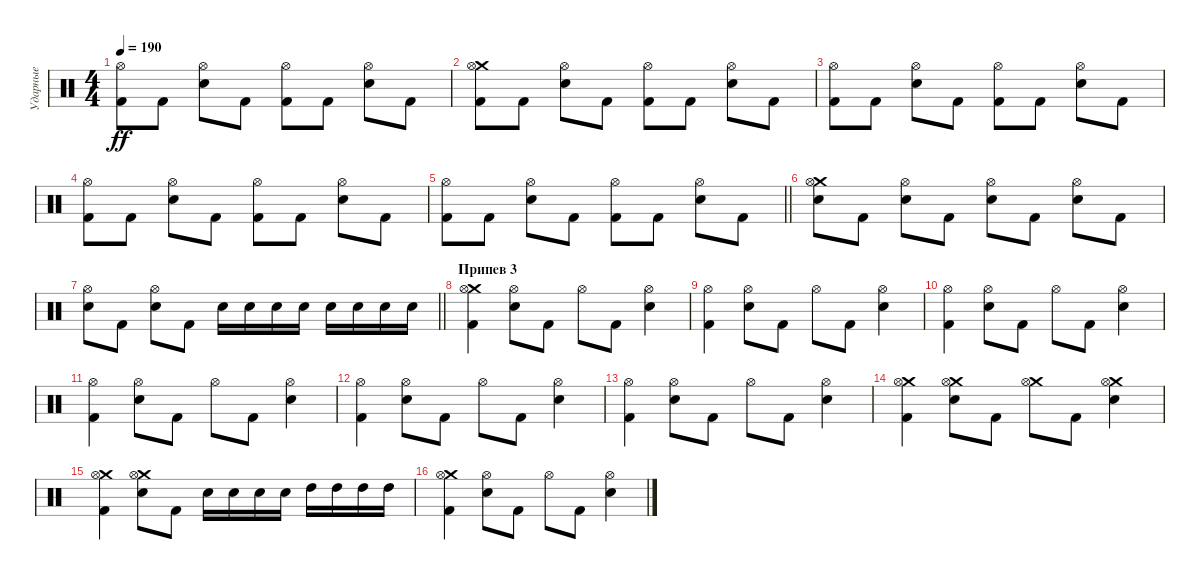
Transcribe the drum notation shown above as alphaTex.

\track ("Ударные" "Ударные") {instrument percussion}
\staff {score}
\articulation defaults
\ts (4 4)
\tempo 190
\clef neutral
\ks c
("Kick (hit) 2" "Hi-Hat (open)").8{dy ff} "Kick (hit) 2".8 ("Electric Snare (hit)" "Hi-Hat (open)").8 "Kick (hit) 2".8 ("Kick (hit) 2" "Hi-Hat (open)").8 "Kick (hit) 2".8 ("Electric Snare (hit)" "Hi-Hat (open)").8 "Kick (hit) 2".8 |
("Crash medium (hit)" "Kick (hit) 2" "Hi-Hat (open)").8 "Kick (hit) 2".8 ("Electric Snare (hit)" "Hi-Hat (open)").8 "Kick (hit) 2".8 ("Kick (hit) 2" "Hi-Hat (open)").8 "Kick (hit) 2".8 ("Electric Snare (hit)" "Hi-Hat (open)").8 "Kick (hit) 2".8 |
("Kick (hit) 2" "Hi-Hat (open)").8 "Kick (hit) 2".8 ("Electric Snare (hit)" "Hi-Hat (open)").8 "Kick (hit) 2".8 ("Kick (hit) 2" "Hi-Hat (open)").8 "Kick (hit) 2".8 ("Electric Snare (hit)" "Hi-Hat (open)").8 "Kick (hit) 2".8 |
("Kick (hit) 2" "Hi-Hat (open)").8 "Kick (hit) 2".8 ("Electric Snare (hit)" "Hi-Hat (open)").8 "Kick (hit) 2".8 ("Kick (hit) 2" "Hi-Hat (open)").8 "Kick (hit) 2".8 ("Electric Snare (hit)" "Hi-Hat (open)").8 "Kick (hit) 2".8 |
\barLineRight lightlight
("Kick (hit) 2" "Hi-Hat (open)").8 "Kick (hit) 2".8 ("Electric Snare (hit)" "Hi-Hat (open)").8 "Kick (hit) 2".8 ("Kick (hit) 2" "Hi-Hat (open)").8 "Kick (hit) 2".8 ("Electric Snare (hit)" "Hi-Hat (open)").8 "Kick (hit) 2".8 |
("Crash medium (hit)" "Electric Snare (hit)" "Hi-Hat (open)").8 "Kick (hit) 2".8 ("Electric Snare (hit)" "Hi-Hat (open)").8 "Kick (hit) 2".8 ("Electric Snare (hit)" "Hi-Hat (open)").8 "Kick (hit) 2".8 ("Electric Snare (hit)" "Hi-Hat (open)").8 "Kick (hit) 2".8 |
\barLineRight lightlight
("Electric Snare (hit)" "Hi-Hat (open)").8 "Kick (hit) 2".8 ("Electric Snare (hit)" "Hi-Hat (open)").8 "Kick (hit) 2".8 "Electric Snare (hit)".16 "Electric Snare (hit)".16 "Electric Snare (hit)".16 "Electric Snare (hit)".16 "Electric Snare (hit)".16 "Electric Snare (hit)".16 "Electric Snare (hit)".16 "Electric Snare (hit)".16 |
\section ("" "Припев 3")
("Crash medium (hit)" "Kick (hit) 2" "Hi-Hat (open)").4 ("Electric Snare (hit)" "Hi-Hat (open)").8 "Kick (hit) 2".8 "Hi-Hat (open)".8 "Kick (hit) 2".8 ("Electric Snare (hit)" "Hi-Hat (open)").4 |
("Kick (hit) 2" "Hi-Hat (open)").4 ("Electric Snare (hit)" "Hi-Hat (open)").8 "Kick (hit) 2".8 "Hi-Hat (open)".8 "Kick (hit) 2".8 ("Electric Snare (hit)" "Hi-Hat (open)").4 |
("Kick (hit) 2" "Hi-Hat (open)").4 ("Electric Snare (hit)" "Hi-Hat (open)").8 "Kick (hit) 2".8 "Hi-Hat (open)".8 "Kick (hit) 2".8 ("Electric Snare (hit)" "Hi-Hat (open)").4 |
("Kick (hit) 2" "Hi-Hat (open)").4 ("Electric Snare (hit)" "Hi-Hat (open)").8 "Kick (hit) 2".8 "Hi-Hat (open)".8 "Kick (hit) 2".8 ("Electric Snare (hit)" "Hi-Hat (open)").4 |
("Kick (hit) 2" "Hi-Hat (open)").4 ("Electric Snare (hit)" "Hi-Hat (open)").8 "Kick (hit) 2".8 "Hi-Hat (open)".8 "Kick (hit) 2".8 ("Electric Snare (hit)" "Hi-Hat (open)").4 |
("Kick (hit) 2" "Hi-Hat (open)").4 ("Electric Snare (hit)" "Hi-Hat (open)").8 "Kick (hit) 2".8 "Hi-Hat (open)".8 "Kick (hit) 2".8 ("Electric Snare (hit)" "Hi-Hat (open)").4 |
("Crash medium (hit)" "Kick (hit) 2" "Hi-Hat (open)").4 ("Crash medium (hit)" "Electric Snare (hit)" "Hi-Hat (open)").8 "Kick (hit) 2".8 ("Crash medium (hit)" "Hi-Hat (open)").8 "Kick (hit) 2".8 ("Crash medium (hit)" "Electric Snare (hit)" "Hi-Hat (open)").4 |
("Crash medium (hit)" "Kick (hit) 2" "Hi-Hat (open)").4 ("Crash medium (hit)" "Electric Snare (hit)" "Hi-Hat (open)").8 "Kick (hit) 2".8 "Electric Snare (hit)".16 "Electric Snare (hit)".16 "Electric Snare (hit)".16 "Electric Snare (hit)".16 "High Tom (hit)".16 "High Tom (hit)".16 "High Tom (hit)".16 "High Tom (hit)".16 |
("Crash medium (hit)" "Kick (hit) 2" "Hi-Hat (open)").4 ("Electric Snare (hit)" "Hi-Hat (open)").8 "Kick (hit) 2".8 "Hi-Hat (open)".8 "Kick (hit) 2".8 ("Electric Snare (hit)" "Hi-Hat (open)").4
